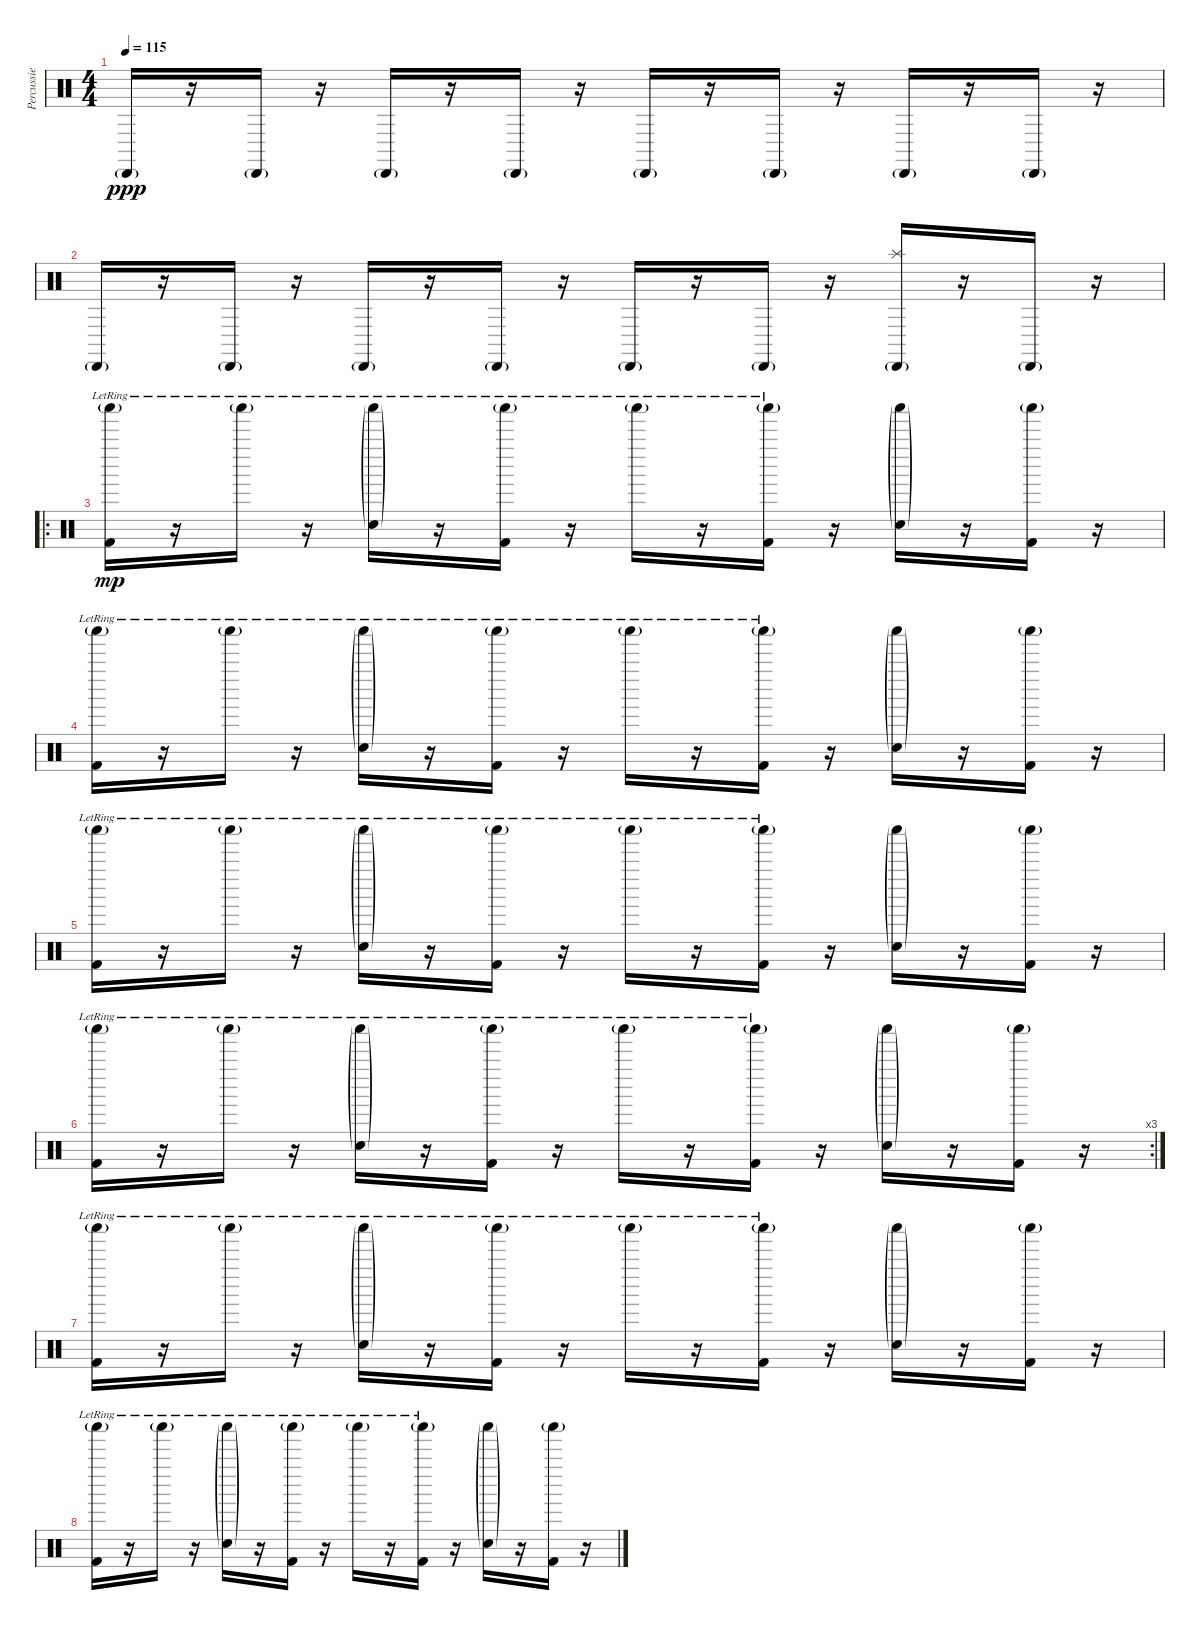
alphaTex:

\track ("Percussie" "Percussie") {instrument percussion}
\staff {score}
\articulation defaults
\ts (4 4)
\tempo 115
\clef neutral
\ks c "Cabasa (hit)"{g}.16{dy ppp}
r.16 "Cabasa (hit)"{g}.16 r.16 "Cabasa (hit)"{g}.16 r.16 "Cabasa (hit)"{g}.16 r.16 "Cabasa (hit)"{g}.16 r.16 "Cabasa (hit)"{g}.16 r.16 "Cabasa (hit)"{g}.16 r.16 "Cabasa (hit)"{g}.16 r.16 |
"Cabasa (hit)"{g}.16 r.16 "Cabasa (hit)"{g}.16 r.16 "Cabasa (hit)"{g}.16 r.16 "Cabasa (hit)"{g}.16 r.16 "Cabasa (hit)"{g}.16 r.16 "Cabasa (hit)"{g}.16 r.16 ("Cabasa (hit)"{g} "Splash (hit)").16 r.16 "Cabasa (hit)"{g}.16 r.16 |
\ro
("Shaker (hit)"{g lr} "Kick (hit) 2").16{dy mp} r.16 "Shaker (hit)"{g lr}.16 r.16 ("Shaker (hit)"{g lr} "Snare (hit) 2"{g}).16 r.16 ("Shaker (hit)"{g lr} "Kick (hit) 2").16 r.16 "Shaker (hit)"{g lr}.16 r.16 ("Shaker (hit)"{g lr} "Kick (hit) 2").16 r.16 ("Shaker (hit)"{g} "Snare (hit) 2"{g}).16 r.16 ("Shaker (hit)"{g} "Kick (hit) 2").16 r.16 |
("Shaker (hit)"{g lr} "Kick (hit) 2").16 r.16 "Shaker (hit)"{g lr}.16 r.16 ("Shaker (hit)"{g lr} "Snare (hit) 2"{g}).16 r.16 ("Shaker (hit)"{g lr} "Kick (hit) 2").16 r.16 "Shaker (hit)"{g lr}.16 r.16 ("Shaker (hit)"{g lr} "Kick (hit) 2").16 r.16 ("Shaker (hit)"{g} "Snare (hit) 2"{g}).16 r.16 ("Shaker (hit)"{g} "Kick (hit) 2").16 r.16 |
("Shaker (hit)"{g lr} "Kick (hit) 2").16 r.16 "Shaker (hit)"{g lr}.16 r.16 ("Shaker (hit)"{g lr} "Snare (hit) 2"{g}).16 r.16 ("Shaker (hit)"{g lr} "Kick (hit) 2").16 r.16 "Shaker (hit)"{g lr}.16 r.16 ("Shaker (hit)"{g lr} "Kick (hit) 2").16 r.16 ("Shaker (hit)"{g} "Snare (hit) 2"{g}).16 r.16 ("Shaker (hit)"{g} "Kick (hit) 2").16 r.16 |
\rc 3
("Shaker (hit)"{g lr} "Kick (hit) 2").16 r.16 "Shaker (hit)"{g lr}.16 r.16 ("Shaker (hit)"{g lr} "Snare (hit) 2"{g}).16 r.16 ("Shaker (hit)"{g lr} "Kick (hit) 2").16 r.16 "Shaker (hit)"{g lr}.16 r.16 ("Shaker (hit)"{g lr} "Kick (hit) 2").16 r.16 ("Shaker (hit)"{g} "Snare (hit) 2"{g}).16 r.16 ("Shaker (hit)"{g} "Kick (hit) 2").16 r.16 |
("Shaker (hit)"{g lr} "Kick (hit) 2").16 r.16 "Shaker (hit)"{g lr}.16 r.16 ("Shaker (hit)"{g lr} "Snare (hit) 2"{g}).16 r.16 ("Shaker (hit)"{g lr} "Kick (hit) 2").16 r.16 "Shaker (hit)"{g lr}.16 r.16 ("Shaker (hit)"{g lr} "Kick (hit) 2").16 r.16 ("Shaker (hit)"{g} "Snare (hit) 2"{g}).16 r.16 ("Shaker (hit)"{g} "Kick (hit) 2").16 r.16 |
("Shaker (hit)"{g lr} "Kick (hit) 2").16 r.16 "Shaker (hit)"{g lr}.16 r.16 ("Shaker (hit)"{g lr} "Snare (hit) 2"{g}).16 r.16 ("Shaker (hit)"{g lr} "Kick (hit) 2").16 r.16 "Shaker (hit)"{g lr}.16 r.16 ("Shaker (hit)"{g lr} "Kick (hit) 2").16 r.16 ("Shaker (hit)"{g} "Snare (hit) 2"{g}).16 r.16 ("Shaker (hit)"{g} "Kick (hit) 2").16 r.16
